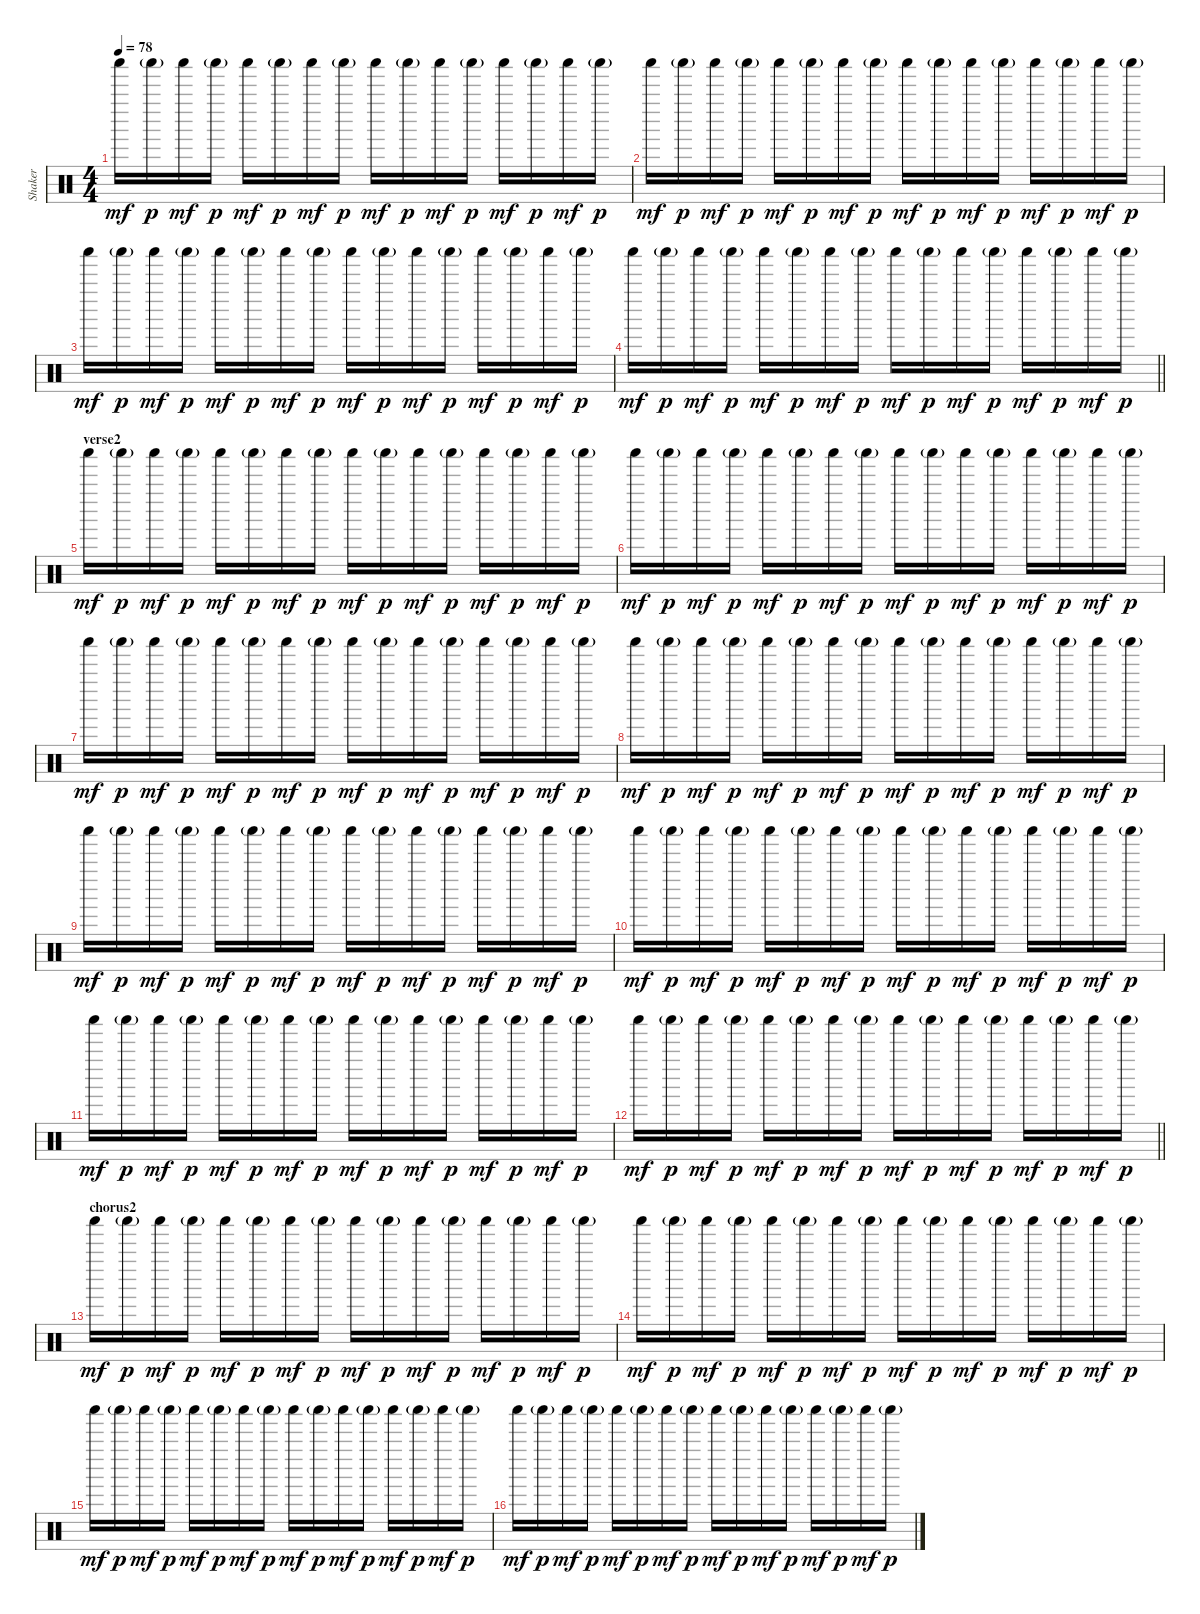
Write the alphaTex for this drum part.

\track ("Shaker" "Shaker") {instrument percussion}
\staff {score}
\articulation defaults
\ts (4 4)
\tempo 78
\clef neutral
\ks c "Shaker (hit)".16{dy mf} "Shaker (hit)"{g}.16{dy p} "Shaker (hit)".16{dy mf} "Shaker (hit)"{g}.16{dy p} "Shaker (hit)".16{dy mf} "Shaker (hit)"{g}.16{dy p} "Shaker (hit)".16{dy mf} "Shaker (hit)"{g}.16{dy p} "Shaker (hit)".16{dy mf} "Shaker (hit)"{g}.16{dy p} "Shaker (hit)".16{dy mf} "Shaker (hit)"{g}.16{dy p} "Shaker (hit)".16{dy mf} "Shaker (hit)"{g}.16{dy p} "Shaker (hit)".16{dy mf} "Shaker (hit)"{g}.16{dy p}
|
"Shaker (hit)".16{dy mf} "Shaker (hit)"{g}.16{dy p} "Shaker (hit)".16{dy mf} "Shaker (hit)"{g}.16{dy p} "Shaker (hit)".16{dy mf} "Shaker (hit)"{g}.16{dy p} "Shaker (hit)".16{dy mf} "Shaker (hit)"{g}.16{dy p} "Shaker (hit)".16{dy mf} "Shaker (hit)"{g}.16{dy p} "Shaker (hit)".16{dy mf} "Shaker (hit)"{g}.16{dy p} "Shaker (hit)".16{dy mf} "Shaker (hit)"{g}.16{dy p} "Shaker (hit)".16{dy mf} "Shaker (hit)"{g}.16{dy p} |
"Shaker (hit)".16{dy mf} "Shaker (hit)"{g}.16{dy p} "Shaker (hit)".16{dy mf} "Shaker (hit)"{g}.16{dy p} "Shaker (hit)".16{dy mf} "Shaker (hit)"{g}.16{dy p} "Shaker (hit)".16{dy mf} "Shaker (hit)"{g}.16{dy p} "Shaker (hit)".16{dy mf} "Shaker (hit)"{g}.16{dy p} "Shaker (hit)".16{dy mf} "Shaker (hit)"{g}.16{dy p} "Shaker (hit)".16{dy mf} "Shaker (hit)"{g}.16{dy p} "Shaker (hit)".16{dy mf} "Shaker (hit)"{g}.16{dy p} |
\barLineRight lightlight "Shaker (hit)".16{dy mf} "Shaker (hit)"{g}.16{dy p} "Shaker (hit)".16{dy mf} "Shaker (hit)"{g}.16{dy p} "Shaker (hit)".16{dy mf} "Shaker (hit)"{g}.16{dy p} "Shaker (hit)".16{dy mf} "Shaker (hit)"{g}.16{dy p} "Shaker (hit)".16{dy mf} "Shaker (hit)"{g}.16{dy p} "Shaker (hit)".16{dy mf} "Shaker (hit)"{g}.16{dy p} "Shaker (hit)".16{dy mf} "Shaker (hit)"{g}.16{dy p} "Shaker (hit)".16{dy mf} "Shaker (hit)"{g}.16{dy p}
|
\section ("" "verse2")
"Shaker (hit)".16{dy mf} "Shaker (hit)"{g}.16{dy p} "Shaker (hit)".16{dy mf} "Shaker (hit)"{g}.16{dy p} "Shaker (hit)".16{dy mf} "Shaker (hit)"{g}.16{dy p} "Shaker (hit)".16{dy mf} "Shaker (hit)"{g}.16{dy p} "Shaker (hit)".16{dy mf} "Shaker (hit)"{g}.16{dy p} "Shaker (hit)".16{dy mf} "Shaker (hit)"{g}.16{dy p} "Shaker (hit)".16{dy mf} "Shaker (hit)"{g}.16{dy p} "Shaker (hit)".16{dy mf} "Shaker (hit)"{g}.16{dy p} |
"Shaker (hit)".16{dy mf} "Shaker (hit)"{g}.16{dy p} "Shaker (hit)".16{dy mf} "Shaker (hit)"{g}.16{dy p} "Shaker (hit)".16{dy mf} "Shaker (hit)"{g}.16{dy p} "Shaker (hit)".16{dy mf} "Shaker (hit)"{g}.16{dy p} "Shaker (hit)".16{dy mf} "Shaker (hit)"{g}.16{dy p} "Shaker (hit)".16{dy mf} "Shaker (hit)"{g}.16{dy p} "Shaker (hit)".16{dy mf} "Shaker (hit)"{g}.16{dy p} "Shaker (hit)".16{dy mf} "Shaker (hit)"{g}.16{dy p} |
"Shaker (hit)".16{dy mf} "Shaker (hit)"{g}.16{dy p} "Shaker (hit)".16{dy mf} "Shaker (hit)"{g}.16{dy p} "Shaker (hit)".16{dy mf} "Shaker (hit)"{g}.16{dy p} "Shaker (hit)".16{dy mf} "Shaker (hit)"{g}.16{dy p} "Shaker (hit)".16{dy mf} "Shaker (hit)"{g}.16{dy p} "Shaker (hit)".16{dy mf} "Shaker (hit)"{g}.16{dy p} "Shaker (hit)".16{dy mf} "Shaker (hit)"{g}.16{dy p} "Shaker (hit)".16{dy mf} "Shaker (hit)"{g}.16{dy p} |
"Shaker (hit)".16{dy mf} "Shaker (hit)"{g}.16{dy p} "Shaker (hit)".16{dy mf} "Shaker (hit)"{g}.16{dy p} "Shaker (hit)".16{dy mf} "Shaker (hit)"{g}.16{dy p} "Shaker (hit)".16{dy mf} "Shaker (hit)"{g}.16{dy p} "Shaker (hit)".16{dy mf} "Shaker (hit)"{g}.16{dy p} "Shaker (hit)".16{dy mf} "Shaker (hit)"{g}.16{dy p} "Shaker (hit)".16{dy mf} "Shaker (hit)"{g}.16{dy p} "Shaker (hit)".16{dy mf} "Shaker (hit)"{g}.16{dy p} |
"Shaker (hit)".16{dy mf} "Shaker (hit)"{g}.16{dy p} "Shaker (hit)".16{dy mf} "Shaker (hit)"{g}.16{dy p} "Shaker (hit)".16{dy mf} "Shaker (hit)"{g}.16{dy p} "Shaker (hit)".16{dy mf} "Shaker (hit)"{g}.16{dy p} "Shaker (hit)".16{dy mf} "Shaker (hit)"{g}.16{dy p} "Shaker (hit)".16{dy mf} "Shaker (hit)"{g}.16{dy p} "Shaker (hit)".16{dy mf} "Shaker (hit)"{g}.16{dy p} "Shaker (hit)".16{dy mf} "Shaker (hit)"{g}.16{dy p} |
"Shaker (hit)".16{dy mf} "Shaker (hit)"{g}.16{dy p} "Shaker (hit)".16{dy mf} "Shaker (hit)"{g}.16{dy p} "Shaker (hit)".16{dy mf} "Shaker (hit)"{g}.16{dy p} "Shaker (hit)".16{dy mf} "Shaker (hit)"{g}.16{dy p} "Shaker (hit)".16{dy mf} "Shaker (hit)"{g}.16{dy p} "Shaker (hit)".16{dy mf} "Shaker (hit)"{g}.16{dy p} "Shaker (hit)".16{dy mf} "Shaker (hit)"{g}.16{dy p} "Shaker (hit)".16{dy mf} "Shaker (hit)"{g}.16{dy p} |
"Shaker (hit)".16{dy mf} "Shaker (hit)"{g}.16{dy p} "Shaker (hit)".16{dy mf} "Shaker (hit)"{g}.16{dy p} "Shaker (hit)".16{dy mf} "Shaker (hit)"{g}.16{dy p} "Shaker (hit)".16{dy mf} "Shaker (hit)"{g}.16{dy p} "Shaker (hit)".16{dy mf} "Shaker (hit)"{g}.16{dy p} "Shaker (hit)".16{dy mf} "Shaker (hit)"{g}.16{dy p} "Shaker (hit)".16{dy mf} "Shaker (hit)"{g}.16{dy p} "Shaker (hit)".16{dy mf} "Shaker (hit)"{g}.16{dy p} |
\barLineRight lightlight "Shaker (hit)".16{dy mf} "Shaker (hit)"{g}.16{dy p} "Shaker (hit)".16{dy mf} "Shaker (hit)"{g}.16{dy p} "Shaker (hit)".16{dy mf} "Shaker (hit)"{g}.16{dy p} "Shaker (hit)".16{dy mf} "Shaker (hit)"{g}.16{dy p} "Shaker (hit)".16{dy mf} "Shaker (hit)"{g}.16{dy p} "Shaker (hit)".16{dy mf} "Shaker (hit)"{g}.16{dy p} "Shaker (hit)".16{dy mf} "Shaker (hit)"{g}.16{dy p} "Shaker (hit)".16{dy mf} "Shaker (hit)"{g}.16{dy p}
|
\section ("" "chorus2")
"Shaker (hit)".16{dy mf} "Shaker (hit)"{g}.16{dy p} "Shaker (hit)".16{dy mf} "Shaker (hit)"{g}.16{dy p} "Shaker (hit)".16{dy mf} "Shaker (hit)"{g}.16{dy p} "Shaker (hit)".16{dy mf} "Shaker (hit)"{g}.16{dy p} "Shaker (hit)".16{dy mf} "Shaker (hit)"{g}.16{dy p} "Shaker (hit)".16{dy mf} "Shaker (hit)"{g}.16{dy p} "Shaker (hit)".16{dy mf} "Shaker (hit)"{g}.16{dy p} "Shaker (hit)".16{dy mf} "Shaker (hit)"{g}.16{dy p} |
"Shaker (hit)".16{dy mf} "Shaker (hit)"{g}.16{dy p} "Shaker (hit)".16{dy mf} "Shaker (hit)"{g}.16{dy p} "Shaker (hit)".16{dy mf} "Shaker (hit)"{g}.16{dy p} "Shaker (hit)".16{dy mf} "Shaker (hit)"{g}.16{dy p} "Shaker (hit)".16{dy mf} "Shaker (hit)"{g}.16{dy p} "Shaker (hit)".16{dy mf} "Shaker (hit)"{g}.16{dy p} "Shaker (hit)".16{dy mf} "Shaker (hit)"{g}.16{dy p} "Shaker (hit)".16{dy mf} "Shaker (hit)"{g}.16{dy p} |
"Shaker (hit)".16{dy mf} "Shaker (hit)"{g}.16{dy p} "Shaker (hit)".16{dy mf} "Shaker (hit)"{g}.16{dy p} "Shaker (hit)".16{dy mf} "Shaker (hit)"{g}.16{dy p} "Shaker (hit)".16{dy mf} "Shaker (hit)"{g}.16{dy p} "Shaker (hit)".16{dy mf} "Shaker (hit)"{g}.16{dy p} "Shaker (hit)".16{dy mf} "Shaker (hit)"{g}.16{dy p} "Shaker (hit)".16{dy mf} "Shaker (hit)"{g}.16{dy p} "Shaker (hit)".16{dy mf} "Shaker (hit)"{g}.16{dy p} |
"Shaker (hit)".16{dy mf} "Shaker (hit)"{g}.16{dy p} "Shaker (hit)".16{dy mf} "Shaker (hit)"{g}.16{dy p} "Shaker (hit)".16{dy mf} "Shaker (hit)"{g}.16{dy p} "Shaker (hit)".16{dy mf} "Shaker (hit)"{g}.16{dy p} "Shaker (hit)".16{dy mf} "Shaker (hit)"{g}.16{dy p} "Shaker (hit)".16{dy mf} "Shaker (hit)"{g}.16{dy p} "Shaker (hit)".16{dy mf} "Shaker (hit)"{g}.16{dy p} "Shaker (hit)".16{dy mf} "Shaker (hit)"{g}.16{dy p}
